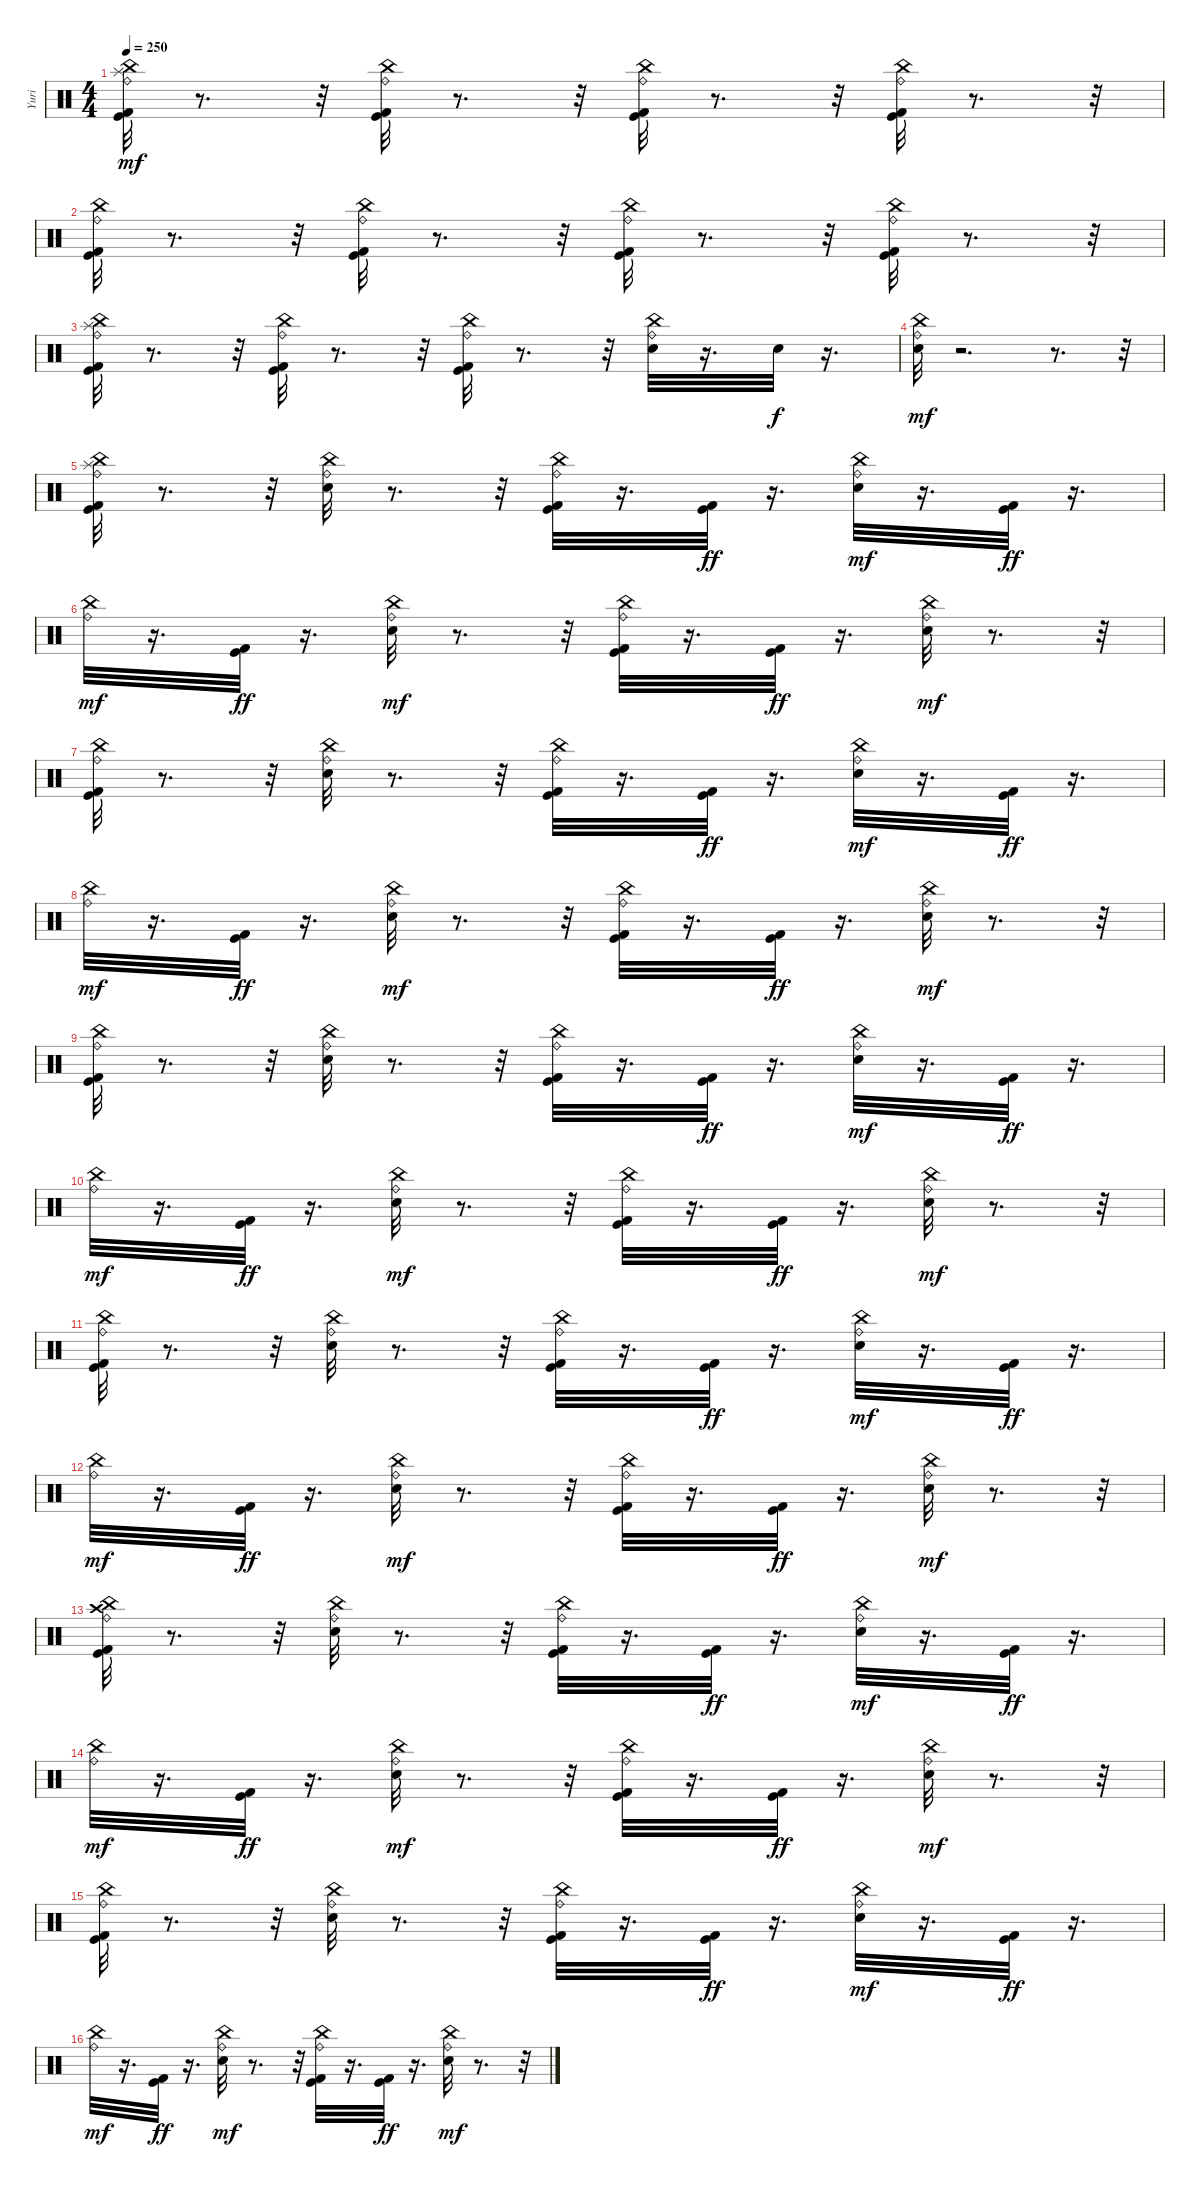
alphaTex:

\track ("Yuri" "Yuri") {instrument percussion}
\staff {score}
\articulation defaults
\ts (4 4)
\tempo 250
\clef neutral
\ks c
("Kick (hit) 2" "Kick (hit)" "Ride (bell)" "China (hit)" "Splash (hit)").32{dy mf} r.8{d} r.32 ("Kick (hit) 2" "Kick (hit)" "Ride (bell)" "China (hit)").32 r.8{d} r.32 ("Kick (hit) 2" "Kick (hit)" "Ride (bell)" "China (hit)").32 r.8{d} r.32 ("Kick (hit) 2" "Kick (hit)" "Ride (bell)" "China (hit)").32 r.8{d} r.32 |
("Kick (hit) 2" "Kick (hit)" "Ride (bell)" "China (hit)").32 r.8{d} r.32 ("Kick (hit) 2" "Kick (hit)" "Ride (bell)" "China (hit)").32 r.8{d} r.32 ("Kick (hit) 2" "Kick (hit)" "Ride (bell)" "China (hit)").32 r.8{d} r.32 ("Kick (hit) 2" "Kick (hit)" "Ride (bell)" "China (hit)").32 r.8{d} r.32 |
("Kick (hit) 2" "Kick (hit)" "Ride (bell)" "China (hit)" "Splash (hit)").32 r.8{d} r.32 ("Kick (hit) 2" "Kick (hit)" "Ride (bell)" "China (hit)").32 r.8{d} r.32 ("Kick (hit) 2" "Kick (hit)" "Ride (bell)" "China (hit)").32 r.8{d} r.32 ("Ride (bell)" "China (hit)" "Snare (hit) 2").32 r.16{d} "Snare (hit) 2".32{dy f} r.16{d} |
("Ride (bell)" "China (hit)" "Snare (hit) 2").32{dy mf} r.2{d} r.8{d} r.32 |
("Kick (hit) 2" "Kick (hit)" "Ride (bell)" "China (hit)" "Splash (hit)").32 r.8{d} r.32 ("Snare (hit) 2" "Ride (bell)" "China (hit)").32 r.8{d} r.32 ("Kick (hit) 2" "Kick (hit)" "Ride (bell)" "China (hit)").32 r.16{d} ("Kick (hit) 2" "Kick (hit)").32{dy ff} r.16{d} ("Snare (hit) 2" "Ride (bell)" "China (hit)").32{dy mf} r.16{d} ("Kick (hit) 2" "Kick (hit)").32{dy ff} r.16{d} |
("Ride (bell)" "China (hit)").32{dy mf} r.16{d} ("Kick (hit) 2" "Kick (hit)").32{dy ff} r.16{d} ("Snare (hit) 2" "Ride (bell)" "China (hit)").32{dy mf} r.8{d} r.32 ("Kick (hit) 2" "Kick (hit)" "Ride (bell)" "China (hit)").32 r.16{d} ("Kick (hit) 2" "Kick (hit)").32{dy ff} r.16{d} ("Snare (hit) 2" "Ride (bell)" "China (hit)").32{dy mf} r.8{d} r.32 |
("Kick (hit) 2" "Kick (hit)" "Ride (bell)" "China (hit)").32 r.8{d} r.32 ("Snare (hit) 2" "Ride (bell)" "China (hit)").32 r.8{d} r.32 ("Kick (hit) 2" "Kick (hit)" "Ride (bell)" "China (hit)").32 r.16{d} ("Kick (hit) 2" "Kick (hit)").32{dy ff} r.16{d} ("Snare (hit) 2" "Ride (bell)" "China (hit)").32{dy mf} r.16{d} ("Kick (hit) 2" "Kick (hit)").32{dy ff} r.16{d} |
("Ride (bell)" "China (hit)").32{dy mf} r.16{d} ("Kick (hit) 2" "Kick (hit)").32{dy ff} r.16{d} ("Snare (hit) 2" "Ride (bell)" "China (hit)").32{dy mf} r.8{d} r.32 ("Kick (hit) 2" "Kick (hit)" "Ride (bell)" "China (hit)").32 r.16{d} ("Kick (hit) 2" "Kick (hit)").32{dy ff} r.16{d} ("Snare (hit) 2" "Ride (bell)" "China (hit)").32{dy mf} r.8{d} r.32 |
("Kick (hit) 2" "Kick (hit)" "Ride (bell)" "China (hit)").32 r.8{d} r.32 ("Snare (hit) 2" "Ride (bell)" "China (hit)").32 r.8{d} r.32 ("Kick (hit) 2" "Kick (hit)" "Ride (bell)" "China (hit)").32 r.16{d} ("Kick (hit) 2" "Kick (hit)").32{dy ff} r.16{d} ("Snare (hit) 2" "Ride (bell)" "China (hit)").32{dy mf} r.16{d} ("Kick (hit) 2" "Kick (hit)").32{dy ff} r.16{d} |
("Ride (bell)" "China (hit)").32{dy mf} r.16{d} ("Kick (hit) 2" "Kick (hit)").32{dy ff} r.16{d} ("Snare (hit) 2" "Ride (bell)" "China (hit)").32{dy mf} r.8{d} r.32 ("Kick (hit) 2" "Kick (hit)" "Ride (bell)" "China (hit)").32 r.16{d} ("Kick (hit) 2" "Kick (hit)").32{dy ff} r.16{d} ("Snare (hit) 2" "Ride (bell)" "China (hit)").32{dy mf} r.8{d} r.32 |
("Kick (hit) 2" "Kick (hit)" "Ride (bell)" "China (hit)").32 r.8{d} r.32 ("Snare (hit) 2" "Ride (bell)" "China (hit)").32 r.8{d} r.32 ("Kick (hit) 2" "Kick (hit)" "Ride (bell)" "China (hit)").32 r.16{d} ("Kick (hit) 2" "Kick (hit)").32{dy ff} r.16{d} ("Snare (hit) 2" "Ride (bell)" "China (hit)").32{dy mf} r.16{d} ("Kick (hit) 2" "Kick (hit)").32{dy ff} r.16{d} |
("Ride (bell)" "China (hit)").32{dy mf} r.16{d} ("Kick (hit) 2" "Kick (hit)").32{dy ff} r.16{d} ("Snare (hit) 2" "Ride (bell)" "China (hit)").32{dy mf} r.8{d} r.32 ("Kick (hit) 2" "Kick (hit)" "Ride (bell)" "China (hit)").32 r.16{d} ("Kick (hit) 2" "Kick (hit)").32{dy ff} r.16{d} ("Snare (hit) 2" "Ride (bell)" "China (hit)").32{dy mf} r.8{d} r.32 |
("Kick (hit) 2" "Kick (hit)" "Crash high (hit)" "Ride (bell)" "China (hit)").32 r.8{d} r.32 ("Snare (hit) 2" "Ride (bell)" "China (hit)").32 r.8{d} r.32 ("Kick (hit) 2" "Kick (hit)" "Ride (bell)" "China (hit)").32 r.16{d} ("Kick (hit) 2" "Kick (hit)").32{dy ff} r.16{d} ("Snare (hit) 2" "Ride (bell)" "China (hit)").32{dy mf} r.16{d} ("Kick (hit) 2" "Kick (hit)").32{dy ff} r.16{d} |
("Ride (bell)" "China (hit)").32{dy mf} r.16{d} ("Kick (hit) 2" "Kick (hit)").32{dy ff} r.16{d} ("Snare (hit) 2" "Ride (bell)" "China (hit)").32{dy mf} r.8{d} r.32 ("Kick (hit) 2" "Kick (hit)" "Ride (bell)" "China (hit)").32 r.16{d} ("Kick (hit) 2" "Kick (hit)").32{dy ff} r.16{d} ("Snare (hit) 2" "Ride (bell)" "China (hit)").32{dy mf} r.8{d} r.32 |
("Kick (hit) 2" "Kick (hit)" "Ride (bell)" "China (hit)").32 r.8{d} r.32 ("Snare (hit) 2" "Ride (bell)" "China (hit)").32 r.8{d} r.32 ("Kick (hit) 2" "Kick (hit)" "Ride (bell)" "China (hit)").32 r.16{d} ("Kick (hit) 2" "Kick (hit)").32{dy ff} r.16{d} ("Snare (hit) 2" "Ride (bell)" "China (hit)").32{dy mf} r.16{d} ("Kick (hit) 2" "Kick (hit)").32{dy ff} r.16{d} |
("Ride (bell)" "China (hit)").32{dy mf} r.16{d} ("Kick (hit) 2" "Kick (hit)").32{dy ff} r.16{d} ("Snare (hit) 2" "Ride (bell)" "China (hit)").32{dy mf} r.8{d} r.32 ("Kick (hit) 2" "Kick (hit)" "Ride (bell)" "China (hit)").32 r.16{d} ("Kick (hit) 2" "Kick (hit)").32{dy ff} r.16{d} ("Snare (hit) 2" "Ride (bell)" "China (hit)").32{dy mf} r.8{d} r.32
